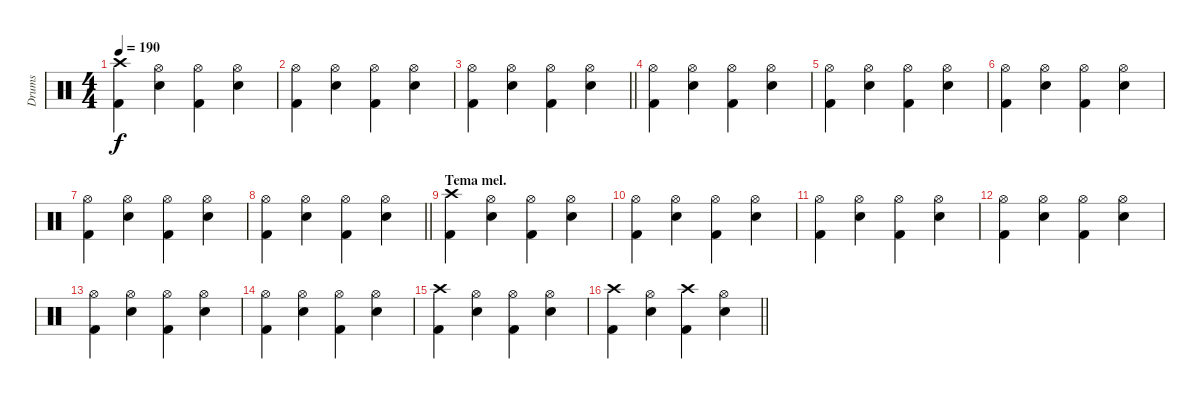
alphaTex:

\track ("Drums" "Drums") {instrument percussion}
\staff {score}
\articulation defaults
\ts (4 4)
\tempo 190
\clef neutral
\ks c
("Crash high (hit)" "Kick (hit) 2").4{dy f} ("Hi-Hat (open)" "Snare (hit) 2").4 ("Hi-Hat (open)" "Kick (hit) 2").4 ("Hi-Hat (open)" "Snare (hit) 2").4 |
("Hi-Hat (open)" "Kick (hit) 2").4 ("Hi-Hat (open)" "Snare (hit) 2").4 ("Hi-Hat (open)" "Kick (hit) 2").4 ("Hi-Hat (open)" "Snare (hit) 2").4 |
\barLineRight lightlight
("Hi-Hat (open)" "Kick (hit) 2").4 ("Hi-Hat (open)" "Snare (hit) 2").4 ("Hi-Hat (open)" "Kick (hit) 2").4 ("Hi-Hat (open)" "Snare (hit) 2").4 |
("Hi-Hat (open)" "Kick (hit) 2").4 ("Hi-Hat (open)" "Snare (hit) 2").4 ("Hi-Hat (open)" "Kick (hit) 2").4 ("Hi-Hat (open)" "Snare (hit) 2").4 |
("Hi-Hat (open)" "Kick (hit) 2").4 ("Hi-Hat (open)" "Snare (hit) 2").4 ("Hi-Hat (open)" "Kick (hit) 2").4 ("Hi-Hat (open)" "Snare (hit) 2").4 |
("Hi-Hat (open)" "Kick (hit) 2").4 ("Hi-Hat (open)" "Snare (hit) 2").4 ("Hi-Hat (open)" "Kick (hit) 2").4 ("Hi-Hat (open)" "Snare (hit) 2").4 |
("Hi-Hat (open)" "Kick (hit) 2").4 ("Hi-Hat (open)" "Snare (hit) 2").4 ("Hi-Hat (open)" "Kick (hit) 2").4 ("Hi-Hat (open)" "Snare (hit) 2").4 |
\barLineRight lightlight
("Hi-Hat (open)" "Kick (hit) 2").4 ("Hi-Hat (open)" "Snare (hit) 2").4 ("Hi-Hat (open)" "Kick (hit) 2").4 ("Hi-Hat (open)" "Snare (hit) 2").4 |
\section ("" "Tema mel.")
("Crash high (hit)" "Kick (hit) 2").4 ("Hi-Hat (open)" "Snare (hit) 2").4 ("Hi-Hat (open)" "Kick (hit) 2").4 ("Hi-Hat (open)" "Snare (hit) 2").4 |
("Hi-Hat (open)" "Kick (hit) 2").4 ("Hi-Hat (open)" "Snare (hit) 2").4 ("Hi-Hat (open)" "Kick (hit) 2").4 ("Hi-Hat (open)" "Snare (hit) 2").4 |
("Hi-Hat (open)" "Kick (hit) 2").4 ("Hi-Hat (open)" "Snare (hit) 2").4 ("Hi-Hat (open)" "Kick (hit) 2").4 ("Hi-Hat (open)" "Snare (hit) 2").4 |
("Hi-Hat (open)" "Kick (hit) 2").4 ("Hi-Hat (open)" "Snare (hit) 2").4 ("Hi-Hat (open)" "Kick (hit) 2").4 ("Hi-Hat (open)" "Snare (hit) 2").4 |
("Hi-Hat (open)" "Kick (hit) 2").4 ("Hi-Hat (open)" "Snare (hit) 2").4 ("Hi-Hat (open)" "Kick (hit) 2").4 ("Hi-Hat (open)" "Snare (hit) 2").4 |
("Hi-Hat (open)" "Kick (hit) 2").4 ("Hi-Hat (open)" "Snare (hit) 2").4 ("Hi-Hat (open)" "Kick (hit) 2").4 ("Hi-Hat (open)" "Snare (hit) 2").4 |
("Crash high (hit)" "Kick (hit) 2").4 ("Hi-Hat (open)" "Snare (hit) 2").4 ("Hi-Hat (open)" "Kick (hit) 2").4 ("Hi-Hat (open)" "Snare (hit) 2").4 |
\barLineRight lightlight
("Crash high (hit)" "Kick (hit) 2").4 ("Hi-Hat (open)" "Snare (hit) 2").4 ("Crash high (hit)" "Kick (hit) 2").4 ("Hi-Hat (open)" "Snare (hit) 2").4
